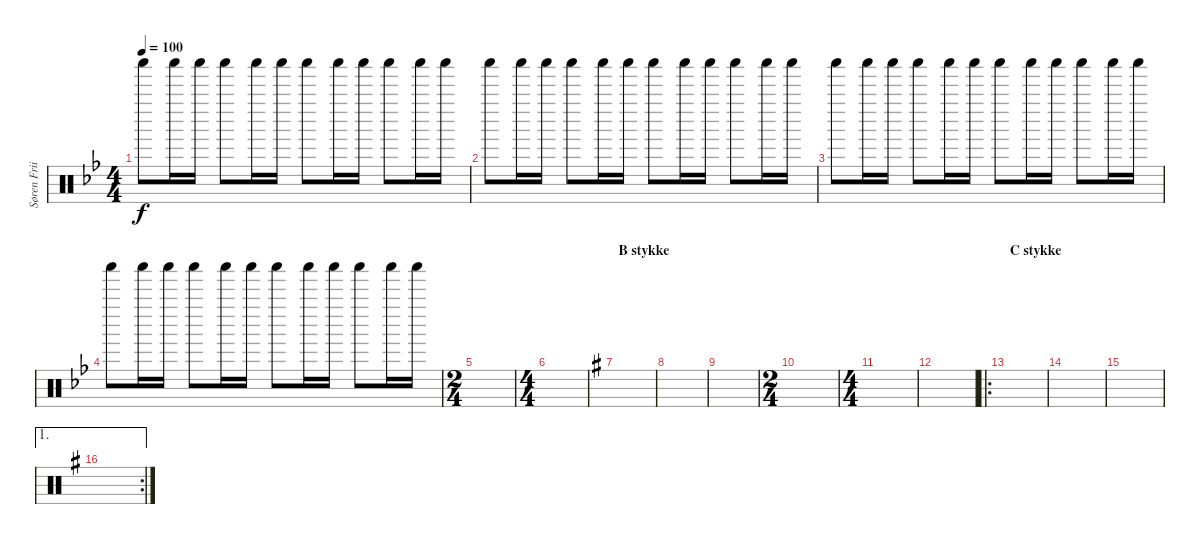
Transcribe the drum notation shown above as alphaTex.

\track ("Søren Friis (Shaker)" "Søren Frii") {instrument percussion}
\staff {score}
\articulation defaults
\ts (4 4)
\tempo 100
\clef neutral
\ks bb "Shaker (hit)".8{dy f} "Shaker (hit)".16 "Shaker (hit)".16 "Shaker (hit)".8 "Shaker (hit)".16 "Shaker (hit)".16 "Shaker (hit)".8 "Shaker (hit)".16 "Shaker (hit)".16 "Shaker (hit)".8 "Shaker (hit)".16 "Shaker (hit)".16
|
"Shaker (hit)".8 "Shaker (hit)".16 "Shaker (hit)".16 "Shaker (hit)".8 "Shaker (hit)".16 "Shaker (hit)".16 "Shaker (hit)".8 "Shaker (hit)".16 "Shaker (hit)".16 "Shaker (hit)".8 "Shaker (hit)".16 "Shaker (hit)".16 |
"Shaker (hit)".8 "Shaker (hit)".16 "Shaker (hit)".16 "Shaker (hit)".8 "Shaker (hit)".16 "Shaker (hit)".16 "Shaker (hit)".8 "Shaker (hit)".16 "Shaker (hit)".16 "Shaker (hit)".8 "Shaker (hit)".16 "Shaker (hit)".16 |
"Shaker (hit)".8 "Shaker (hit)".16 "Shaker (hit)".16 "Shaker (hit)".8 "Shaker (hit)".16 "Shaker (hit)".16 "Shaker (hit)".8 "Shaker (hit)".16 "Shaker (hit)".16 "Shaker (hit)".8 "Shaker (hit)".16 "Shaker (hit)".16 |
\ts (2 4)
|
\ts (4 4)
|
\section ("" "B stykke")
\ks g
|
|
|
\ts (2 4)
|
\ts (4 4)
|
|
\ro
\section ("" "C stykke")
|
|
|
\ae 1
\rc 2
